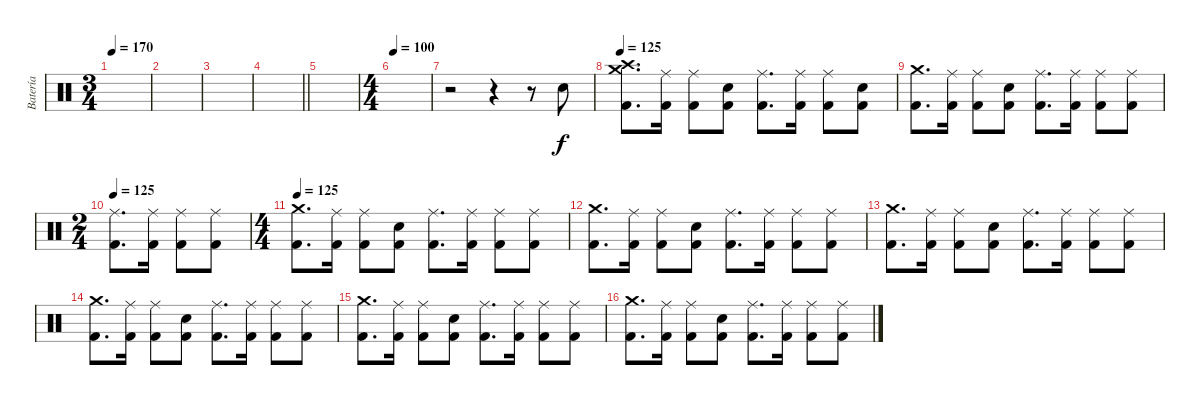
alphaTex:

\track ("Batería" "Batería") {instrument percussion}
\staff {score}
\articulation defaults
\ts (3 4)
\tempo 170
\clef neutral
\ks c
|
|
|
\barLineRight lightlight
|
\section ("" "")
|
\ts (4 4)
\tempo 100
|
r.2 r.4 r.8 "Snare (hit) 2".8 |
\tempo 125
("Crash medium (hit)" "Crash high (hit)" "Kick (hit) 2").8{d} ("Ride (middle)" "Kick (hit) 2").16 ("Ride (middle)" "Kick (hit) 2").8 ("Electric Snare (hit)" "Kick (hit) 2").8 ("Ride (middle)" "Kick (hit) 2").8{d} ("Ride (middle)" "Kick (hit) 2").16 ("Ride (middle)" "Kick (hit) 2").8 ("Electric Snare (hit)" "Kick (hit) 2").8 |
("Crash medium (hit)" "Kick (hit) 2").8{d} ("Ride (middle)" "Kick (hit) 2").16 ("Ride (middle)" "Kick (hit) 2").8 ("Electric Snare (hit)" "Kick (hit) 2").8 ("Ride (middle)" "Kick (hit) 2").8{d} ("Ride (middle)" "Kick (hit) 2").16 ("Ride (middle)" "Kick (hit) 2").8 ("Ride (middle)" "Kick (hit) 2").8 |
\ts (2 4)
\tempo 125
("Ride (middle)" "Kick (hit) 2").8{d} ("Ride (middle)" "Kick (hit) 2").16 ("Ride (middle)" "Kick (hit) 2").8 ("Ride (middle)" "Kick (hit) 2").8 |
\ts (4 4)
\tempo 125
("Crash medium (hit)" "Kick (hit) 2").8{d} ("Ride (middle)" "Kick (hit) 2").16 ("Ride (middle)" "Kick (hit) 2").8 ("Electric Snare (hit)" "Kick (hit) 2").8 ("Ride (middle)" "Kick (hit) 2").8{d} ("Ride (middle)" "Kick (hit) 2").16 ("Ride (middle)" "Kick (hit) 2").8 ("Ride (middle)" "Kick (hit) 2").8 |
("Crash medium (hit)" "Kick (hit) 2").8{d} ("Ride (middle)" "Kick (hit) 2").16 ("Ride (middle)" "Kick (hit) 2").8 ("Electric Snare (hit)" "Kick (hit) 2").8 ("Ride (middle)" "Kick (hit) 2").8{d} ("Ride (middle)" "Kick (hit) 2").16 ("Ride (middle)" "Kick (hit) 2").8 ("Ride (middle)" "Kick (hit) 2").8 |
("Crash medium (hit)" "Kick (hit) 2").8{d} ("Ride (middle)" "Kick (hit) 2").16 ("Ride (middle)" "Kick (hit) 2").8 ("Electric Snare (hit)" "Kick (hit) 2").8 ("Ride (middle)" "Kick (hit) 2").8{d} ("Ride (middle)" "Kick (hit) 2").16 ("Ride (middle)" "Kick (hit) 2").8 ("Ride (middle)" "Kick (hit) 2").8 |
("Crash medium (hit)" "Kick (hit) 2").8{d} ("Ride (middle)" "Kick (hit) 2").16 ("Ride (middle)" "Kick (hit) 2").8 ("Electric Snare (hit)" "Kick (hit) 2").8 ("Ride (middle)" "Kick (hit) 2").8{d} ("Ride (middle)" "Kick (hit) 2").16 ("Ride (middle)" "Kick (hit) 2").8 ("Ride (middle)" "Kick (hit) 2").8 |
("Crash medium (hit)" "Kick (hit) 2").8{d} ("Ride (middle)" "Kick (hit) 2").16 ("Ride (middle)" "Kick (hit) 2").8 ("Electric Snare (hit)" "Kick (hit) 2").8 ("Ride (middle)" "Kick (hit) 2").8{d} ("Ride (middle)" "Kick (hit) 2").16 ("Ride (middle)" "Kick (hit) 2").8 ("Ride (middle)" "Kick (hit) 2").8 |
("Crash medium (hit)" "Kick (hit) 2").8{d} ("Ride (middle)" "Kick (hit) 2").16 ("Ride (middle)" "Kick (hit) 2").8 ("Electric Snare (hit)" "Kick (hit) 2").8 ("Ride (middle)" "Kick (hit) 2").8{d} ("Ride (middle)" "Kick (hit) 2").16 ("Ride (middle)" "Kick (hit) 2").8 ("Ride (middle)" "Kick (hit) 2").8
